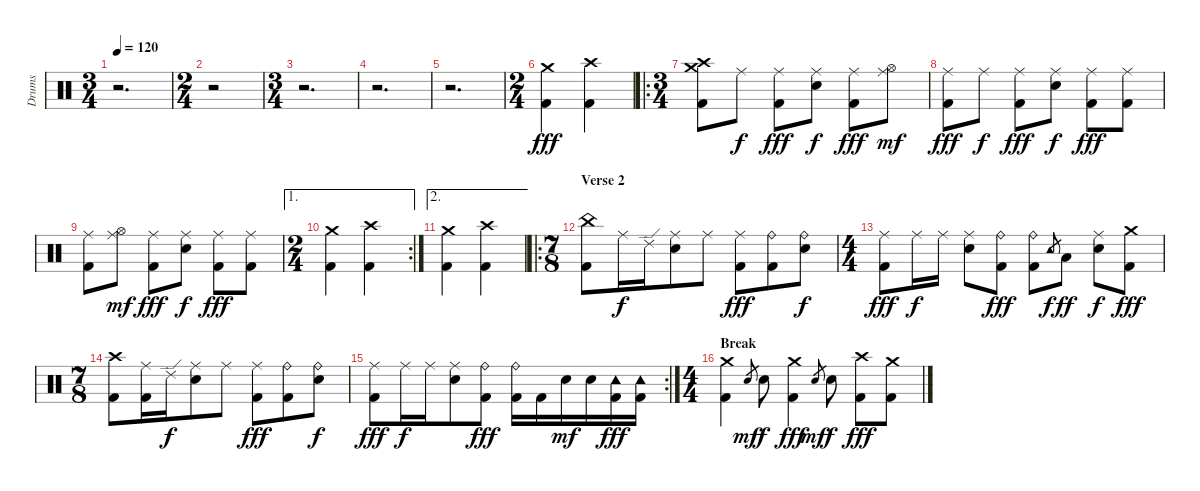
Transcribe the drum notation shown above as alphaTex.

\track ("Drums" "Drums") {instrument percussion}
\staff {score}
\articulation defaults
\ts (3 4)
\tempo 120
\clef neutral
\ks c
r.2{d dy f} |
\ts (2 4)
r.2 |
\ts (3 4)
r.2{d} |
r.2{d} |
r.2{d} |
\ts (2 4)
("Crash medium (hit)" "Kick (hit) 2").4{dy fff} ("Crash high (hit)" "Kick (hit) 2").4 |
\ro
\ts (3 4)
("Crash medium (hit)" "Crash high (hit)" "Kick (hit) 2").8 "Ride (middle)".8{dy f} ("Ride (middle)" "Kick (hit) 2").8{dy fff} ("Ride (middle)" "Electric Snare (hit)").8{dy f} ("Ride (middle)" "Kick (hit) 2").8{dy fff} ("Ride (middle)" "Hi-Hat (open)").8{dy mf} |
("Ride (middle)" "Kick (hit) 2").8{dy fff} "Ride (middle)".8{dy f} ("Ride (middle)" "Kick (hit) 2").8{dy fff} ("Ride (middle)" "Electric Snare (hit)").8{dy f} ("Ride (middle)" "Kick (hit) 2").8{dy fff} ("Ride (middle)" "Kick (hit) 2").8 |
("Ride (middle)" "Kick (hit) 2").8 ("Ride (middle)" "Hi-Hat (open)").8{dy mf} ("Ride (middle)" "Kick (hit) 2").8{dy fff} ("Ride (middle)" "Electric Snare (hit)").8{dy f} ("Ride (middle)" "Kick (hit) 2").8{dy fff} ("Ride (middle)" "Kick (hit) 2").8 |
\ae 1
\rc 2
\ts (2 4)
("Crash medium (hit)" "Kick (hit) 2").4 ("Crash high (hit)" "Kick (hit) 2").4 |
\ae 2
("Crash medium (hit)" "Kick (hit) 2").4 ("Crash high (hit)" "Kick (hit) 2").4 |
\ro
\ts (7 8)
\section ("" "Verse 2")
("China (hit)" "Kick (hit) 2").8 "Ride (middle)".16{dy f} "Ride (edge) 2".16 ("Ride (middle)" "Electric Snare (hit)").8 "Ride (middle)".8 ("Ride (middle)" "Kick (hit) 2").8{dy fff} ("Ride (bell)" "Kick (hit) 2").8 ("Ride (bell)" "Electric Snare (hit)").8{dy f} |
\ts (4 4)
("Ride (middle)" "Kick (hit) 2").8{dy fff} "Ride (middle)".16{dy f} "Ride (middle)".16 ("Ride (middle)" "Electric Snare (hit)").8 ("Ride (bell)" "Kick (hit) 2").8{dy fff} ("Ride (bell)" "Kick (hit) 2").8 "Tambourine (hit)".8{gr dy f} "Low Tom (hit)".8{dy ff} ("Ride (middle)" "Electric Snare (hit)").8{dy f} ("Crash medium (hit)" "Kick (hit) 2").8{dy fff} |
\ts (7 8)
("Crash high (hit)" "Kick (hit) 2").8 ("Ride (middle)" "Kick (hit) 2").16 "Ride (edge) 2".16{dy f} ("Ride (middle)" "Electric Snare (hit)").8 "Ride (middle)".8 ("Ride (middle)" "Kick (hit) 2").8{dy fff} ("Ride (bell)" "Kick (hit) 2").8 ("Ride (bell)" "Electric Snare (hit)").8{dy f} |
\rc 2
("Ride (middle)" "Kick (hit) 2").8{dy fff} "Ride (middle)".16{dy f} "Ride (middle)".16 ("Ride (middle)" "Electric Snare (hit)").8 ("Ride (bell)" "Kick (hit) 2").8{dy fff} ("Ride (bell)" "Kick (hit) 2").16 "Kick (hit) 2".16 "Electric Snare (hit)".16{dy mf} "Electric Snare (hit)".16 ("Tambourine (hit)" "Kick (hit) 2").16{dy fff} ("Tambourine (hit)" "Kick (hit) 2").16 |
\ts (4 4)
\section ("" "Break")
("Crash medium (hit)" "Kick (hit) 2").4 "Electric Snare (hit)".8{gr dy mf} "Electric Snare (hit)".8{dy f} ("Crash medium (hit)" "Kick (hit) 2").4{dy fff} "Electric Snare (hit)".8{gr dy mf} "Electric Snare (hit)".8{dy f} ("Crash high (hit)" "Kick (hit) 2").8{dy fff} ("Crash medium (hit)" "Kick (hit) 2").8
